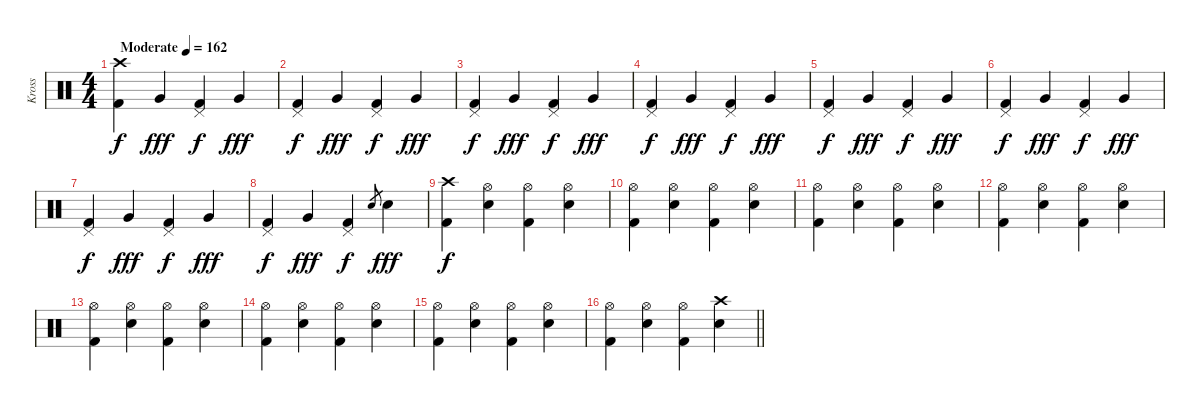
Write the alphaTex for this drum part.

\track ("Kross" "Kross") {instrument percussion}
\staff {score}
\articulation defaults
\ts (4 4)
\tempo (162 "Moderate")
\clef neutral
\ks c
("Crash high (hit)" "Kick (hit) 2").4{dy f} "Very Low Tom (hit)".4{dy fff} ("Pedal Hi-Hat (hit)" "Kick (hit) 2").4{dy f} "Very Low Tom (hit)".4{dy fff} |
("Pedal Hi-Hat (hit)" "Kick (hit) 2").4{dy f} "Very Low Tom (hit)".4{dy fff} ("Pedal Hi-Hat (hit)" "Kick (hit) 2").4{dy f} "Very Low Tom (hit)".4{dy fff} |
("Pedal Hi-Hat (hit)" "Kick (hit) 2").4{dy f} "Very Low Tom (hit)".4{dy fff} ("Pedal Hi-Hat (hit)" "Kick (hit) 2").4{dy f} "Very Low Tom (hit)".4{dy fff} |
("Pedal Hi-Hat (hit)" "Kick (hit) 2").4{dy f} "Very Low Tom (hit)".4{dy fff} ("Pedal Hi-Hat (hit)" "Kick (hit) 2").4{dy f} "Very Low Tom (hit)".4{dy fff} |
("Pedal Hi-Hat (hit)" "Kick (hit) 2").4{dy f} "Very Low Tom (hit)".4{dy fff} ("Pedal Hi-Hat (hit)" "Kick (hit) 2").4{dy f} "Very Low Tom (hit)".4{dy fff} |
("Pedal Hi-Hat (hit)" "Kick (hit) 2").4{dy f} "Very Low Tom (hit)".4{dy fff} ("Pedal Hi-Hat (hit)" "Kick (hit) 2").4{dy f} "Very Low Tom (hit)".4{dy fff} |
("Pedal Hi-Hat (hit)" "Kick (hit) 2").4{dy f} "Very Low Tom (hit)".4{dy fff} ("Pedal Hi-Hat (hit)" "Kick (hit) 2").4{dy f} "Very Low Tom (hit)".4{dy fff} |
("Pedal Hi-Hat (hit)" "Kick (hit) 2").4{dy f} "Very Low Tom (hit)".4{dy fff} ("Pedal Hi-Hat (hit)" "Kick (hit) 2").4{dy f} "Electric Snare (hit)".8{gr} "Electric Snare (hit)".4{dy fff} |
("Crash high (hit)" "Kick (hit) 2").4{dy f} ("Hi-Hat (open)" "Snare (hit) 2").4 ("Hi-Hat (open)" "Kick (hit) 2").4 ("Hi-Hat (open)" "Snare (hit) 2").4 |
("Hi-Hat (open)" "Kick (hit) 2").4 ("Hi-Hat (open)" "Snare (hit) 2").4 ("Hi-Hat (open)" "Kick (hit) 2").4 ("Hi-Hat (open)" "Snare (hit) 2").4 |
("Hi-Hat (open)" "Kick (hit) 2").4 ("Hi-Hat (open)" "Snare (hit) 2").4 ("Hi-Hat (open)" "Kick (hit) 2").4 ("Hi-Hat (open)" "Snare (hit) 2").4 |
("Hi-Hat (open)" "Kick (hit) 2").4 ("Hi-Hat (open)" "Snare (hit) 2").4 ("Hi-Hat (open)" "Kick (hit) 2").4 ("Hi-Hat (open)" "Snare (hit) 2").4 |
("Hi-Hat (open)" "Kick (hit) 2").4 ("Hi-Hat (open)" "Snare (hit) 2").4 ("Hi-Hat (open)" "Kick (hit) 2").4 ("Hi-Hat (open)" "Snare (hit) 2").4 |
("Hi-Hat (open)" "Kick (hit) 2").4 ("Hi-Hat (open)" "Snare (hit) 2").4 ("Hi-Hat (open)" "Kick (hit) 2").4 ("Hi-Hat (open)" "Snare (hit) 2").4 |
("Hi-Hat (open)" "Kick (hit) 2").4 ("Hi-Hat (open)" "Snare (hit) 2").4 ("Hi-Hat (open)" "Kick (hit) 2").4 ("Hi-Hat (open)" "Snare (hit) 2").4 |
\barLineRight lightlight
("Hi-Hat (open)" "Kick (hit) 2").4 ("Hi-Hat (open)" "Snare (hit) 2").4 ("Hi-Hat (open)" "Kick (hit) 2").4 ("Crash high (hit)" "Snare (hit) 2").4
